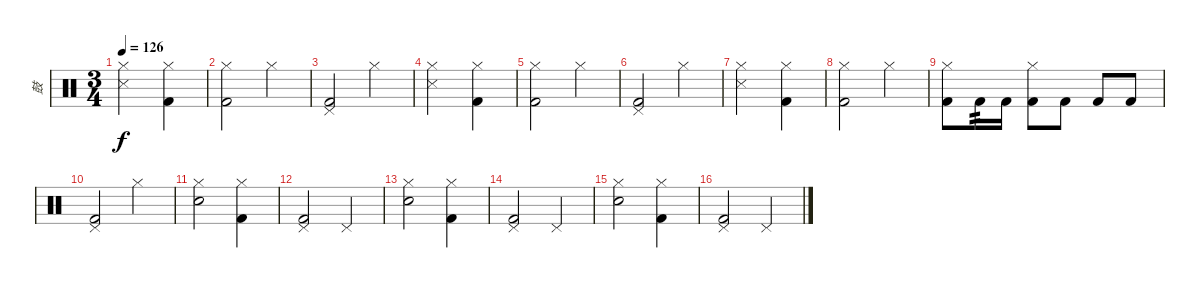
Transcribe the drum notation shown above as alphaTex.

\track ("鼓" "鼓") {instrument percussion}
\staff {score}
\articulation defaults
\ts (3 4)
\tempo 126
\clef neutral
\ks c
("Snare (side stick) 3" "Hi-Hat (closed)").2{dy f} ("Kick (hit) 2" "Hi-Hat (closed)").4 |
("Kick (hit) 2" "Hi-Hat (closed)").2 "Hi-Hat (closed)".4 |
("Kick (hit) 2" "Pedal Hi-Hat (hit)").2 "Hi-Hat (closed)".4 |
("Snare (side stick) 3" "Hi-Hat (closed)").2 ("Kick (hit) 2" "Hi-Hat (closed)").4 |
("Kick (hit) 2" "Hi-Hat (closed)").2 "Hi-Hat (closed)".4 |
("Kick (hit) 2" "Pedal Hi-Hat (hit)").2 "Hi-Hat (closed)".4 |
("Snare (side stick) 3" "Hi-Hat (closed)").2 ("Kick (hit) 2" "Hi-Hat (closed)").4 |
("Kick (hit) 2" "Hi-Hat (closed)").2 "Hi-Hat (closed)".4 |
("Kick (hit) 2" "Hi-Hat (closed)").8 "Kick (hit) 2".16{tp 2} "Kick (hit) 2".16 ("Kick (hit) 2" "Hi-Hat (closed)").8 "Kick (hit) 2".8 "Kick (hit) 2".8 "Kick (hit) 2".8 |
("Kick (hit) 2" "Pedal Hi-Hat (hit)").2 "Hi-Hat (closed)".4 |
("Snare (hit) 2" "Hi-Hat (closed)").2 ("Kick (hit) 2" "Hi-Hat (closed)").4 |
("Kick (hit) 2" "Pedal Hi-Hat (hit)").2 "Pedal Hi-Hat (hit)".4 |
("Snare (hit) 2" "Hi-Hat (closed)").2 ("Kick (hit) 2" "Hi-Hat (closed)").4 |
("Kick (hit) 2" "Pedal Hi-Hat (hit)").2 "Pedal Hi-Hat (hit)".4 |
("Snare (hit) 2" "Hi-Hat (closed)").2 ("Kick (hit) 2" "Hi-Hat (closed)").4 |
("Kick (hit) 2" "Pedal Hi-Hat (hit)").2 "Pedal Hi-Hat (hit)".4
